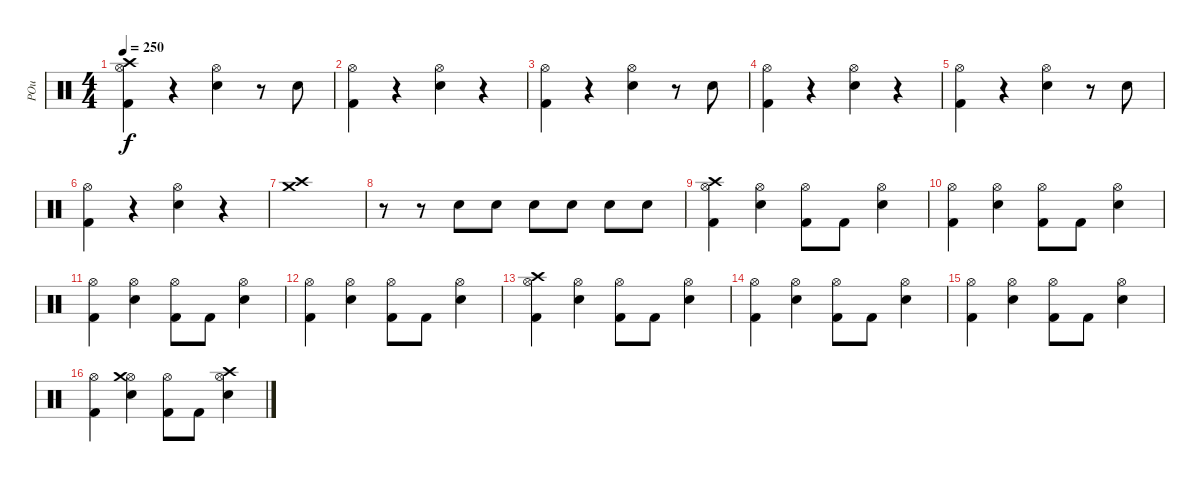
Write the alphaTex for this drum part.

\track ("POu" "POu") {instrument percussion}
\staff {score}
\articulation defaults
\ts (4 4)
\tempo 250
\clef neutral
\ks c
("Kick (hit) 2" "Hi-Hat (open)" "Crash high (hit)").4{dy f} r.4 ("Electric Snare (hit)" "Hi-Hat (open)").4 r.8 "Electric Snare (hit)".8 |
("Kick (hit) 2" "Hi-Hat (open)").4 r.4 ("Electric Snare (hit)" "Hi-Hat (open)").4 r.4 |
("Kick (hit) 2" "Hi-Hat (open)").4 r.4 ("Electric Snare (hit)" "Hi-Hat (open)").4 r.8 "Electric Snare (hit)".8 |
("Kick (hit) 2" "Hi-Hat (open)").4 r.4 ("Electric Snare (hit)" "Hi-Hat (open)").4 r.4 |
("Kick (hit) 2" "Hi-Hat (open)").4 r.4 ("Electric Snare (hit)" "Hi-Hat (open)").4 r.8 "Electric Snare (hit)".8 |
("Kick (hit) 2" "Hi-Hat (open)").4 r.4 ("Electric Snare (hit)" "Hi-Hat (open)").4 r.4 |
("Crash medium (hit)" "Crash high (hit)").1 |
r.8 r.8 "Electric Snare (hit)".8 "Electric Snare (hit)".8 "Electric Snare (hit)".8 "Electric Snare (hit)".8 "Electric Snare (hit)".8 "Electric Snare (hit)".8 |
("Kick (hit) 2" "Hi-Hat (open)" "Crash high (hit)").4 ("Electric Snare (hit)" "Hi-Hat (open)").4 ("Kick (hit) 2" "Hi-Hat (open)").8 "Kick (hit) 2".8 ("Electric Snare (hit)" "Hi-Hat (open)").4 |
("Kick (hit) 2" "Hi-Hat (open)").4 ("Electric Snare (hit)" "Hi-Hat (open)").4 ("Kick (hit) 2" "Hi-Hat (open)").8 "Kick (hit) 2".8 ("Electric Snare (hit)" "Hi-Hat (open)").4 |
("Kick (hit) 2" "Hi-Hat (open)").4 ("Electric Snare (hit)" "Hi-Hat (open)").4 ("Kick (hit) 2" "Hi-Hat (open)").8 "Kick (hit) 2".8 ("Electric Snare (hit)" "Hi-Hat (open)").4 |
("Kick (hit) 2" "Hi-Hat (open)").4 ("Electric Snare (hit)" "Hi-Hat (open)").4 ("Kick (hit) 2" "Hi-Hat (open)").8 "Kick (hit) 2".8 ("Electric Snare (hit)" "Hi-Hat (open)").4 |
("Kick (hit) 2" "Hi-Hat (open)" "Crash high (hit)").4 ("Electric Snare (hit)" "Hi-Hat (open)").4 ("Kick (hit) 2" "Hi-Hat (open)").8 "Kick (hit) 2".8 ("Electric Snare (hit)" "Hi-Hat (open)").4 |
("Kick (hit) 2" "Hi-Hat (open)").4 ("Electric Snare (hit)" "Hi-Hat (open)").4 ("Kick (hit) 2" "Hi-Hat (open)").8 "Kick (hit) 2".8 ("Electric Snare (hit)" "Hi-Hat (open)").4 |
("Kick (hit) 2" "Hi-Hat (open)").4 ("Electric Snare (hit)" "Hi-Hat (open)").4 ("Kick (hit) 2" "Hi-Hat (open)").8 "Kick (hit) 2".8 ("Electric Snare (hit)" "Hi-Hat (open)").4 |
("Kick (hit) 2" "Hi-Hat (open)").4 ("Electric Snare (hit)" "Hi-Hat (open)" "Crash medium (hit)").4 ("Kick (hit) 2" "Hi-Hat (open)").8 "Kick (hit) 2".8 ("Electric Snare (hit)" "Hi-Hat (open)" "Crash high (hit)").4
